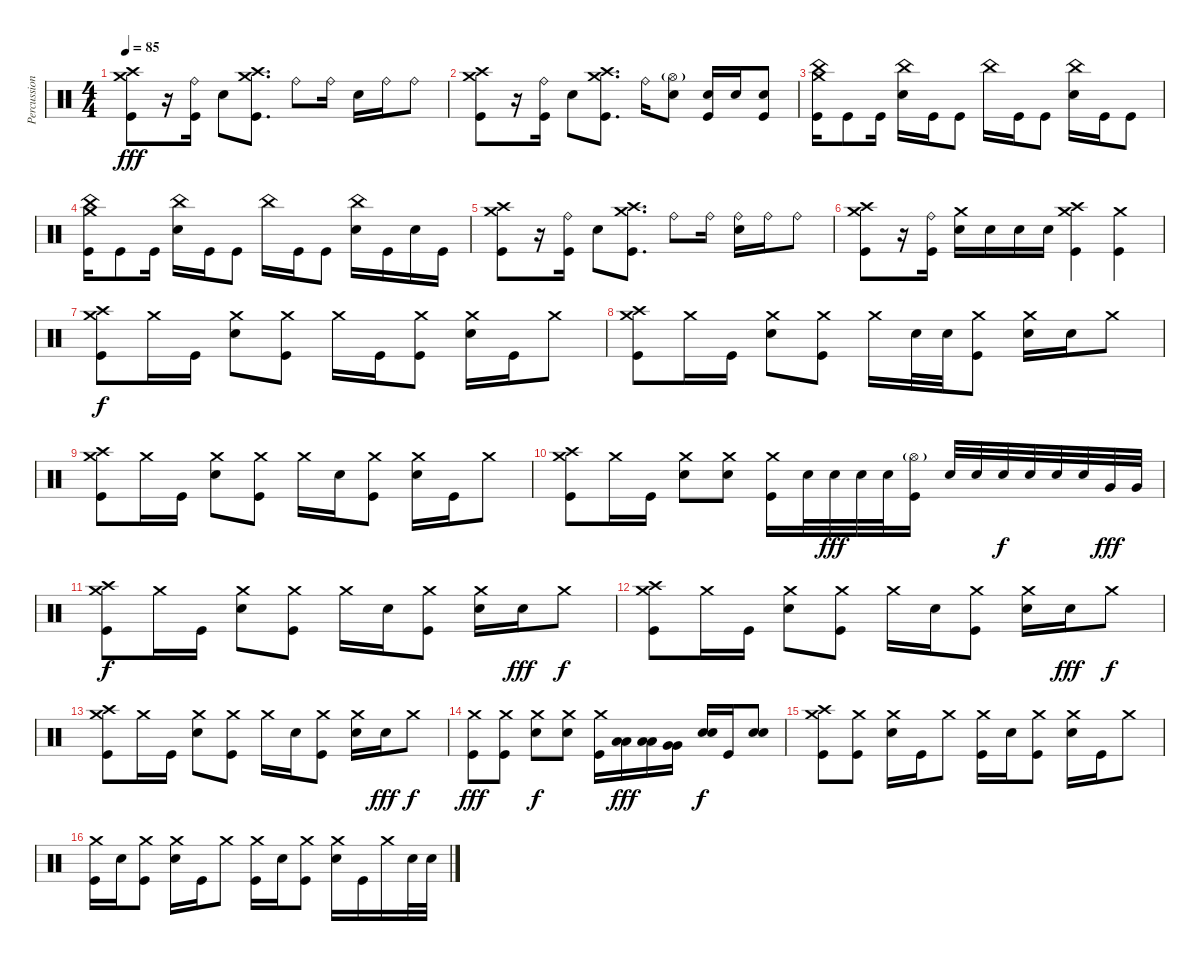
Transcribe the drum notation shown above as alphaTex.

\track ("Percussion" "Percussion") {instrument percussion}
\staff {score}
\articulation defaults
\ts (4 4)
\tempo 85
\clef neutral
\ks c
("Crash high (hit)" "Crash medium (hit)" "Kick (hit)").8{dy fff} r.16 ("Ride (bell)" "Kick (hit)").16 "Snare (hit) 2".8 ("Crash medium (hit)" "Crash high (hit)" "Kick (hit)").8{d} "Ride (bell)".8 "Ride (bell)".16 "Snare (hit) 2".16 "Ride (bell)".16 "Ride (bell)".8 |
("Crash high (hit)" "Crash medium (hit)" "Kick (hit)").8 r.16 ("Ride (bell)" "Kick (hit)").16 "Snare (hit) 2".8 ("Crash medium (hit)" "Crash high (hit)" "Kick (hit)").8{d} "Ride (bell)".16 ("Hi-Hat (open)"{g} "Snare (hit) 2").8 ("Snare (hit) 2" "Kick (hit)").16 "Snare (hit) 2".16 ("Snare (hit) 2" "Kick (hit)").8 |
("Crash medium (hit)" "China (hit)" "Kick (hit)").16 "Kick (hit)".8 "Kick (hit)".16 ("China (hit)" "Snare (hit) 2").16 "Kick (hit)".16 "Kick (hit)".8 "China (hit)".16 "Kick (hit)".16 "Kick (hit)".8 ("China (hit)" "Snare (hit) 2").16 "Kick (hit)".16 "Kick (hit)".8 |
("Crash medium (hit)" "China (hit)" "Kick (hit)").16 "Kick (hit)".8 "Kick (hit)".16 ("China (hit)" "Snare (hit) 2").16 "Kick (hit)".16 "Kick (hit)".8 "China (hit)".16 "Kick (hit)".16 "Kick (hit)".8 ("China (hit)" "Snare (hit) 2").16 "Kick (hit)".16 "Snare (hit) 2".16 "Kick (hit)".16 |
("Crash high (hit)" "Crash medium (hit)" "Kick (hit)").8 r.16 ("Ride (bell)" "Kick (hit)").16 "Snare (hit) 2".8 ("Crash medium (hit)" "Crash high (hit)" "Kick (hit)").8{d} "Ride (bell)".8 "Ride (bell)".16 ("Ride (bell)" "Snare (hit) 2").16 "Ride (bell)".16 "Ride (bell)".8 |
("Crash high (hit)" "Crash medium (hit)" "Kick (hit)").8 r.16 ("Ride (bell)" "Kick (hit)").16 ("Crash medium (hit)" "Snare (hit) 2").16 "Snare (hit) 2".16 "Snare (hit) 2".16 "Snare (hit) 2".16 ("Crash medium (hit)" "Crash high (hit)" "Kick (hit)").4 ("Crash medium (hit)" "Kick (hit)").4 |
("Crash high (hit)" "Crash medium (hit)" "Kick (hit)").8{dy f} "Crash medium (hit)".16 "Kick (hit)".16 ("Crash medium (hit)" "Snare (hit) 2").8 ("Crash medium (hit)" "Kick (hit)").8 "Crash medium (hit)".16 "Kick (hit)".16 ("Crash medium (hit)" "Kick (hit)").8 ("Crash medium (hit)" "Snare (hit) 2").16 "Kick (hit)".16 "Crash medium (hit)".8 |
("Crash high (hit)" "Crash medium (hit)" "Kick (hit)").8 "Crash medium (hit)".16 "Kick (hit)".16 ("Crash medium (hit)" "Snare (hit) 2").8 ("Crash medium (hit)" "Kick (hit)").8 "Crash medium (hit)".16 "Snare (hit) 2".32 "Snare (hit) 2".32 ("Crash medium (hit)" "Kick (hit)").8 ("Crash medium (hit)" "Snare (hit) 2").16 "Snare (hit) 2".16 "Crash medium (hit)".8 |
("Crash high (hit)" "Crash medium (hit)" "Kick (hit)").8 "Crash medium (hit)".16 "Kick (hit)".16 ("Crash medium (hit)" "Snare (hit) 2").8 ("Crash medium (hit)" "Kick (hit)").8 "Crash medium (hit)".16 "Snare (hit) 2".16 ("Crash medium (hit)" "Kick (hit)").8 ("Crash medium (hit)" "Snare (hit) 2").16 "Kick (hit)".16 "Crash medium (hit)".8 |
("Crash high (hit)" "Crash medium (hit)" "Kick (hit)").8 "Crash medium (hit)".16 "Kick (hit)".16 ("Crash medium (hit)" "Snare (hit) 2").8 ("Crash medium (hit)" "Snare (hit) 2").8 ("Crash medium (hit)" "Kick (hit)").16 "Snare (hit) 2".32 "Snare (hit) 2".32{dy fff} "Snare (hit) 2".32 "Snare (hit) 2".32 ("Hi-Hat (open)"{g} "Kick (hit)").16 "Snare (hit) 2".32 "Snare (hit) 2".32 "Snare (hit) 2".32{dy f} "Snare (hit) 2".32 "Snare (hit) 2".32 "Snare (hit) 2".32 "Very Low Tom (hit)".32{dy fff} "Very Low Tom (hit)".32 |
("Crash high (hit)" "Crash medium (hit)" "Kick (hit)").8{dy f} "Crash medium (hit)".16 "Kick (hit)".16 ("Crash medium (hit)" "Snare (hit) 2").8 ("Crash medium (hit)" "Kick (hit)").8 "Crash medium (hit)".16 "Snare (hit) 2".16 ("Crash medium (hit)" "Kick (hit)").8 ("Crash medium (hit)" "Snare (hit) 2").16 "Snare (hit) 2".16{dy fff} "Crash medium (hit)".8{dy f} |
("Crash high (hit)" "Crash medium (hit)" "Kick (hit)").8 "Crash medium (hit)".16 "Kick (hit)".16 ("Crash medium (hit)" "Snare (hit) 2").8 ("Crash medium (hit)" "Kick (hit)").8 "Crash medium (hit)".16 "Snare (hit) 2".16 ("Crash medium (hit)" "Kick (hit)").8 ("Crash medium (hit)" "Snare (hit) 2").16 "Snare (hit) 2".16{dy fff} "Crash medium (hit)".8{dy f} |
("Crash high (hit)" "Crash medium (hit)" "Kick (hit)").8 "Crash medium (hit)".16 "Kick (hit)".16 ("Crash medium (hit)" "Snare (hit) 2").8 ("Crash medium (hit)" "Kick (hit)").8 "Crash medium (hit)".16 "Snare (hit) 2".16 ("Crash medium (hit)" "Kick (hit)").8 ("Crash medium (hit)" "Snare (hit) 2").16 "Snare (hit) 2".16{dy fff} "Crash medium (hit)".8{dy f} |
("Crash medium (hit)" "Kick (hit)").8{dy fff} ("Crash medium (hit)" "Kick (hit)").8 ("Crash medium (hit)" "Snare (hit) 2").8{dy f} ("Crash medium (hit)" "Snare (hit) 2").8 ("Crash medium (hit)" "Kick (hit)").16 ("Low Tom (hit)" "Low Tom (hit)").16{dy fff} ("Low Tom (hit)" "Low Tom (hit)").16 ("Very Low Tom (hit)" "Very Low Tom (hit)").16 ("Snare (hit) 2" "Snare (hit) 2").16{dy f} "Kick (hit)".16 ("Snare (hit) 2" "Snare (hit) 2").8 |
("Crash medium (hit)" "Crash high (hit)" "Kick (hit)").8 ("Crash medium (hit)" "Kick (hit)").8 ("Crash medium (hit)" "Snare (hit) 2").16 "Kick (hit)".16 "Crash medium (hit)".8 ("Crash medium (hit)" "Kick (hit)").16 "Snare (hit) 2".16 ("Crash medium (hit)" "Kick (hit)").8 ("Crash medium (hit)" "Snare (hit) 2").16 "Kick (hit)".16 "Crash medium (hit)".8 |
("Crash medium (hit)" "Kick (hit)").16 "Snare (hit) 2".16 ("Crash medium (hit)" "Kick (hit)").8 ("Crash medium (hit)" "Snare (hit) 2").16 "Kick (hit)".16 "Crash medium (hit)".8 ("Crash medium (hit)" "Kick (hit)").16 "Snare (hit) 2".16 ("Crash medium (hit)" "Kick (hit)").8 ("Crash medium (hit)" "Snare (hit) 2").16 "Kick (hit)".16 "Crash medium (hit)".16 "Snare (hit) 2".32 "Snare (hit) 2".32
